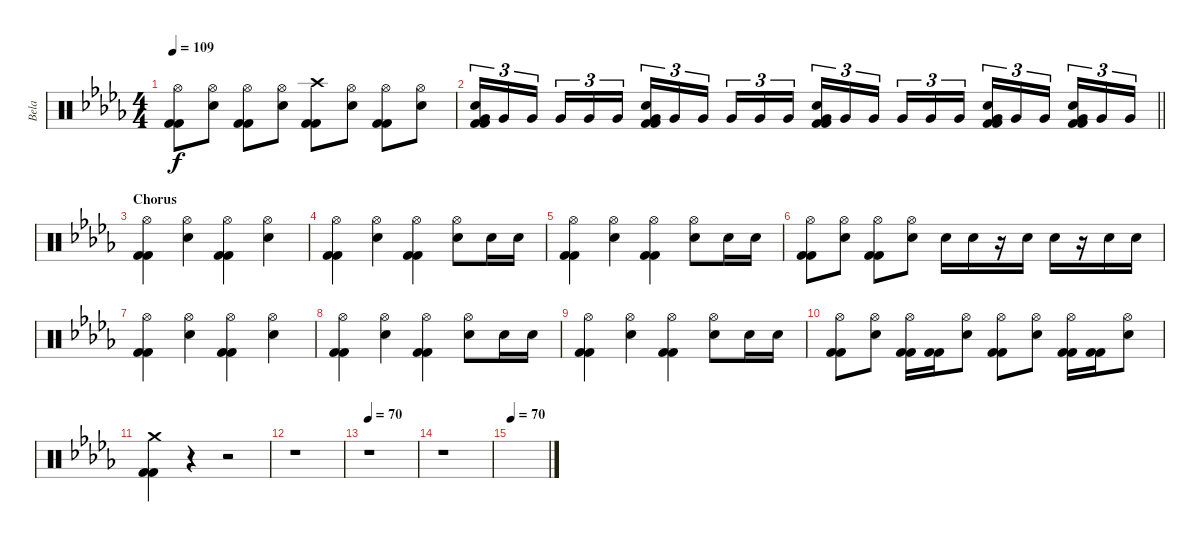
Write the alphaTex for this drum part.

\track ("Bela" "Bela") {instrument percussion}
\staff {score}
\articulation defaults
\ts (4 4)
\tempo 109
\clef neutral
\ks bbminor
("Hi-Hat (open)" "Kick (hit) 2" "Kick (hit) 2").8{dy f} ("Hi-Hat (open)" "Snare (hit) 2").8 ("Hi-Hat (open)" "Kick (hit) 2" "Kick (hit) 2").8 ("Hi-Hat (open)" "Snare (hit) 2").8 ("Crash high (hit)" "Kick (hit) 2" "Kick (hit) 2").8 ("Hi-Hat (open)" "Snare (hit) 2").8 ("Hi-Hat (open)" "Kick (hit) 2" "Kick (hit) 2").8 ("Hi-Hat (open)" "Snare (hit) 2").8 |
\barLineRight lightlight
("Snare (hit) 2" "Very Low Tom (hit)" "Kick (hit) 2" "Kick (hit) 2").16{tu (3 2)} "Very Low Tom (hit)".16{tu (3 2)} "Very Low Tom (hit)".16{tu (3 2) beam splitsecondary} "Very Low Tom (hit)".16{tu (3 2)} "Very Low Tom (hit)".16{tu (3 2)} "Very Low Tom (hit)".16{tu (3 2)} ("Snare (hit) 2" "Very Low Tom (hit)" "Kick (hit) 2" "Kick (hit) 2").16{tu (3 2)} "Very Low Tom (hit)".16{tu (3 2)} "Very Low Tom (hit)".16{tu (3 2) beam splitsecondary} "Very Low Tom (hit)".16{tu (3 2)} "Very Low Tom (hit)".16{tu (3 2)} "Very Low Tom (hit)".16{tu (3 2)} ("Snare (hit) 2" "Very Low Tom (hit)" "Kick (hit) 2" "Kick (hit) 2").16{tu (3 2)} "Very Low Tom (hit)".16{tu (3 2)} "Very Low Tom (hit)".16{tu (3 2) beam splitsecondary} "Very Low Tom (hit)".16{tu (3 2)} "Very Low Tom (hit)".16{tu (3 2)} "Very Low Tom (hit)".16{tu (3 2)} ("Snare (hit) 2" "Very Low Tom (hit)" "Kick (hit) 2" "Kick (hit) 2").16{tu (3 2)} "Very Low Tom (hit)".16{tu (3 2)} "Very Low Tom (hit)".16{tu (3 2) beam splitsecondary} ("Snare (hit) 2" "Very Low Tom (hit)" "Kick (hit) 2" "Kick (hit) 2").16{tu (3 2)} "Very Low Tom (hit)".16{tu (3 2)} "Very Low Tom (hit)".16{tu (3 2)} |
\section ("" "Chorus")
("Hi-Hat (open)" "Kick (hit) 2" "Kick (hit) 2").4 ("Hi-Hat (open)" "Snare (hit) 2").4 ("Hi-Hat (open)" "Kick (hit) 2" "Kick (hit) 2").4 ("Hi-Hat (open)" "Snare (hit) 2").4 |
("Hi-Hat (open)" "Kick (hit) 2" "Kick (hit) 2").4 ("Hi-Hat (open)" "Snare (hit) 2").4 ("Hi-Hat (open)" "Kick (hit) 2" "Kick (hit) 2").4 ("Hi-Hat (open)" "Snare (hit) 2").8 "Snare (hit) 2".16 "Snare (hit) 2".16 |
("Hi-Hat (open)" "Kick (hit) 2" "Kick (hit) 2").4 ("Hi-Hat (open)" "Snare (hit) 2").4 ("Hi-Hat (open)" "Kick (hit) 2" "Kick (hit) 2").4 ("Hi-Hat (open)" "Snare (hit) 2").8 "Snare (hit) 2".16 "Snare (hit) 2".16 |
("Hi-Hat (open)" "Kick (hit) 2" "Kick (hit) 2").8 ("Hi-Hat (open)" "Snare (hit) 2").8 ("Hi-Hat (open)" "Kick (hit) 2" "Kick (hit) 2").8 ("Hi-Hat (open)" "Snare (hit) 2").8 "Snare (hit) 2".16 "Snare (hit) 2".16 r.16 "Snare (hit) 2".16 "Snare (hit) 2".16 r.16 "Snare (hit) 2".16 "Snare (hit) 2".16 |
("Hi-Hat (open)" "Kick (hit) 2" "Kick (hit) 2").4 ("Hi-Hat (open)" "Snare (hit) 2").4 ("Hi-Hat (open)" "Kick (hit) 2" "Kick (hit) 2").4 ("Hi-Hat (open)" "Snare (hit) 2").4 |
("Hi-Hat (open)" "Kick (hit) 2" "Kick (hit) 2").4 ("Hi-Hat (open)" "Snare (hit) 2").4 ("Hi-Hat (open)" "Kick (hit) 2" "Kick (hit) 2").4 ("Hi-Hat (open)" "Snare (hit) 2").8 "Snare (hit) 2".16 "Snare (hit) 2".16 |
("Hi-Hat (open)" "Kick (hit) 2" "Kick (hit) 2").4 ("Hi-Hat (open)" "Snare (hit) 2").4 ("Hi-Hat (open)" "Kick (hit) 2" "Kick (hit) 2").4 ("Hi-Hat (open)" "Snare (hit) 2").8 "Snare (hit) 2".16 "Snare (hit) 2".16 |
("Hi-Hat (open)" "Kick (hit) 2" "Kick (hit) 2").8 ("Hi-Hat (open)" "Snare (hit) 2").8 ("Hi-Hat (open)" "Kick (hit) 2" "Kick (hit) 2").16 ("Kick (hit) 2" "Kick (hit) 2").16 ("Hi-Hat (open)" "Snare (hit) 2").8 ("Hi-Hat (open)" "Kick (hit) 2" "Kick (hit) 2").8 ("Hi-Hat (open)" "Snare (hit) 2").8 ("Hi-Hat (open)" "Kick (hit) 2" "Kick (hit) 2").16 ("Kick (hit) 2" "Kick (hit) 2").16 ("Hi-Hat (open)" "Snare (hit) 2").8 |
("Crash medium (hit)" "Kick (hit) 2" "Kick (hit) 2").4 r.4 r.2 |
r.1 |
\tempo 70
r.1 |
r.1 |
\tempo 70
